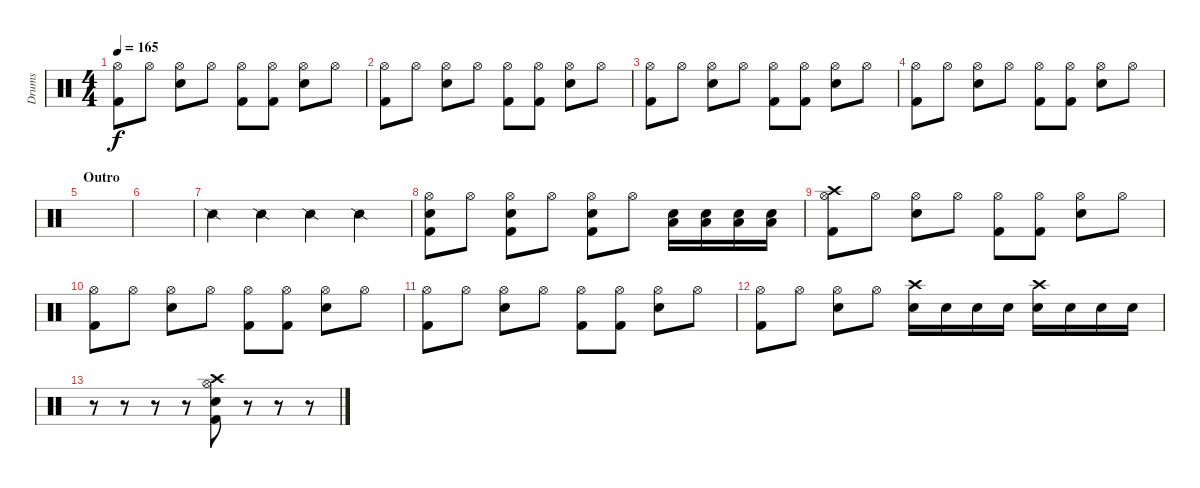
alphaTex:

\track ("Drums" "Drums") {instrument percussion}
\staff {score}
\articulation defaults
\ts (4 4)
\tempo 165
\clef neutral
\ks c
("Kick (hit) 2" "Hi-Hat (open)").8{dy f} "Hi-Hat (open)".8 ("Electric Snare (hit)" "Hi-Hat (open)").8 "Hi-Hat (open)".8 ("Kick (hit) 2" "Hi-Hat (open)").8 ("Kick (hit) 2" "Hi-Hat (open)").8 ("Electric Snare (hit)" "Hi-Hat (open)").8 "Hi-Hat (open)".8 |
("Kick (hit) 2" "Hi-Hat (open)").8 "Hi-Hat (open)".8 ("Electric Snare (hit)" "Hi-Hat (open)").8 "Hi-Hat (open)".8 ("Kick (hit) 2" "Hi-Hat (open)").8 ("Kick (hit) 2" "Hi-Hat (open)").8 ("Electric Snare (hit)" "Hi-Hat (open)").8 "Hi-Hat (open)".8 |
("Kick (hit) 2" "Hi-Hat (open)").8 "Hi-Hat (open)".8 ("Electric Snare (hit)" "Hi-Hat (open)").8 "Hi-Hat (open)".8 ("Kick (hit) 2" "Hi-Hat (open)").8 ("Kick (hit) 2" "Hi-Hat (open)").8 ("Electric Snare (hit)" "Hi-Hat (open)").8 "Hi-Hat (open)".8 |
("Kick (hit) 2" "Hi-Hat (open)").8 "Hi-Hat (open)".8 ("Electric Snare (hit)" "Hi-Hat (open)").8 "Hi-Hat (open)".8 ("Kick (hit) 2" "Hi-Hat (open)").8 ("Kick (hit) 2" "Hi-Hat (open)").8 ("Electric Snare (hit)" "Hi-Hat (open)").8 "Hi-Hat (open)".8 |
\section ("" "Outro")
|
|
"Snare (side stick) 2".4 "Snare (side stick) 2".4 "Snare (side stick) 2".4 "Snare (side stick) 2".4 |
("Electric Snare (hit)" "Kick (hit) 2" "Hi-Hat (open)").8 "Hi-Hat (open)".8 ("Electric Snare (hit)" "Kick (hit) 2" "Hi-Hat (open)").8 "Hi-Hat (open)".8 ("Electric Snare (hit)" "Kick (hit) 2" "Hi-Hat (open)").8 "Hi-Hat (open)".8 ("Electric Snare (hit)" "Low Tom (hit)").16 ("Electric Snare (hit)" "Low Tom (hit)").16 ("Electric Snare (hit)" "Low Tom (hit)").16 ("Electric Snare (hit)" "Low Tom (hit)").16 |
("Kick (hit) 2" "Hi-Hat (open)" "Crash high (hit)").8 "Hi-Hat (open)".8 ("Electric Snare (hit)" "Hi-Hat (open)").8 "Hi-Hat (open)".8 ("Kick (hit) 2" "Hi-Hat (open)").8 ("Kick (hit) 2" "Hi-Hat (open)").8 ("Electric Snare (hit)" "Hi-Hat (open)").8 "Hi-Hat (open)".8 |
("Kick (hit) 2" "Hi-Hat (open)").8 "Hi-Hat (open)".8 ("Electric Snare (hit)" "Hi-Hat (open)").8 "Hi-Hat (open)".8 ("Kick (hit) 2" "Hi-Hat (open)").8 ("Kick (hit) 2" "Hi-Hat (open)").8 ("Electric Snare (hit)" "Hi-Hat (open)").8 "Hi-Hat (open)".8 |
("Kick (hit) 2" "Hi-Hat (open)").8 "Hi-Hat (open)".8 ("Electric Snare (hit)" "Hi-Hat (open)").8 "Hi-Hat (open)".8 ("Kick (hit) 2" "Hi-Hat (open)").8 ("Kick (hit) 2" "Hi-Hat (open)").8 ("Electric Snare (hit)" "Hi-Hat (open)").8 "Hi-Hat (open)".8 |
("Kick (hit) 2" "Hi-Hat (open)").8 "Hi-Hat (open)".8 ("Electric Snare (hit)" "Hi-Hat (open)").8 "Hi-Hat (open)".8 ("Electric Snare (hit)" "Crash high (hit)").16 "Electric Snare (hit)".16 "Electric Snare (hit)".16 "Electric Snare (hit)".16 ("Electric Snare (hit)" "Crash high (hit)").16 "Electric Snare (hit)".16 "Electric Snare (hit)".16 "Electric Snare (hit)".16 |
r.8 r.8 r.8 r.8 ("Electric Snare (hit)" "Kick (hit) 2" "Hi-Hat (open)" "Crash high (hit)").8 r.8 r.8 r.8
